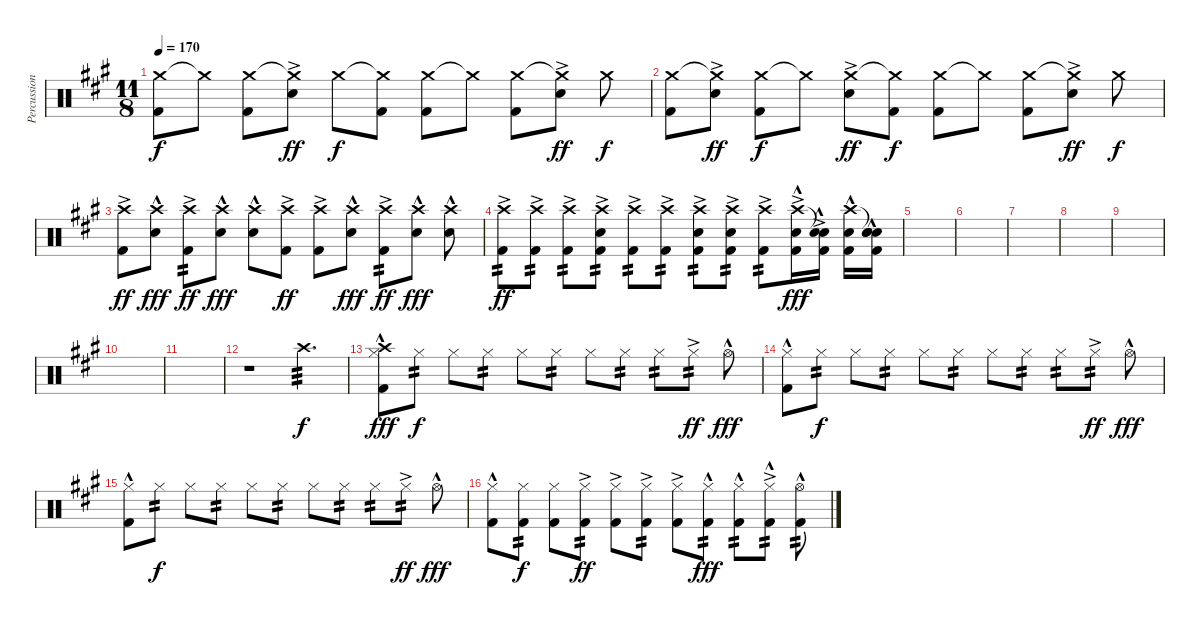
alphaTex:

\track ("Percussion" "Percussion") {instrument percussion}
\staff {score}
\articulation defaults
\ts (11 8)
\tempo 170
\clef neutral
\ks f#minor
("Crash medium (hit)" "Kick (hit) 2").8{dy f} "Crash medium (hit)"{t}.8 ("Crash medium (hit)" "Kick (hit) 2").8 ("Crash medium (hit)"{t} "Electric Snare (hit)"{ac}).8{dy ff} "Crash medium (hit)".8{dy f} ("Crash medium (hit)"{t} "Kick (hit) 2").8 ("Crash medium (hit)" "Kick (hit) 2").8 "Crash medium (hit)"{t}.8 ("Crash medium (hit)" "Kick (hit) 2").8 ("Crash medium (hit)"{t} "Electric Snare (hit)"{ac}).8{dy ff} "Crash medium (hit)".8{dy f} |
("Crash medium (hit)" "Kick (hit) 2").8 ("Crash medium (hit)"{t} "Electric Snare (hit)"{ac}).8{dy ff} ("Crash medium (hit)" "Kick (hit) 2").8{dy f} "Crash medium (hit)"{t}.8 ("Crash medium (hit)" "Electric Snare (hit)"{ac}).8{dy ff} ("Crash medium (hit)"{t} "Kick (hit) 2").8{dy f} ("Crash medium (hit)" "Kick (hit) 2").8 "Crash medium (hit)"{t}.8 ("Crash medium (hit)" "Kick (hit) 2").8 ("Crash medium (hit)"{t} "Electric Snare (hit)"{ac}).8{dy ff} "Crash medium (hit)".8{dy f} |
("Crash high (hit)" "Kick (hit) 2"{ac}).8{dy ff} ("Crash high (hit)" "Electric Snare (hit)"{hac}).8{dy fff} ("Crash high (hit)" "Kick (hit) 2"{ac}).8{tp 2 dy ff} ("Crash high (hit)" "Electric Snare (hit)"{hac}).8{dy fff} ("Crash high (hit)" "Electric Snare (hit)"{hac}).8 ("Crash high (hit)" "Kick (hit) 2"{ac}).8{dy ff} ("Crash high (hit)" "Kick (hit) 2"{ac}).8 ("Crash high (hit)" "Electric Snare (hit)"{hac}).8{dy fff} ("Crash high (hit)" "Kick (hit) 2"{ac}).8{tp 2 dy ff} ("Crash high (hit)" "Electric Snare (hit)"{hac}).8{dy fff} ("Crash high (hit)" "Electric Snare (hit)"{hac}).8 |
("Crash high (hit)" "Kick (hit) 2"{ac}).8{tp 2 dy ff} ("Crash high (hit)" "Kick (hit) 2"{ac}).8{tp 2} ("Crash high (hit)" "Kick (hit) 2"{ac}).8{tp 2} ("Crash high (hit)" "Electric Snare (hit)"{ac} "Kick (hit) 2"{ac}).8{tp 2} ("Crash high (hit)" "Kick (hit) 2"{ac}).8{tp 2} ("Crash high (hit)" "Kick (hit) 2"{ac}).8{tp 2} ("Crash high (hit)" "Electric Snare (hit)"{ac} "Kick (hit) 2"{ac}).8{tp 2} ("Crash high (hit)" "Electric Snare (hit)"{ac} "Kick (hit) 2"{ac}).8{tp 2} ("Crash high (hit)" "Kick (hit) 2"{ac}).8{tp 2} ("Crash high (hit)" "Electric Snare (hit)"{ac} "Kick (hit) 2"{hac}).16{dy fff} ("Snare (hit)"{t} "Electric Snare (hit)"{ac} "Kick (hit) 2"{hac}).16 ("Crash high (hit)" "Electric Snare (hit)"{hac} "Kick (hit) 2"{hac}).16 ("Snare (hit)"{t} "Snare (hit) 2"{hac} "Electric Snare (hit)"{hac} "Kick (hit) 2"{hac}).16 |
|
|
|
|
|
|
|
r.1{volume 3} "Crash high (hit)".4{d tp 3 dy f volume 13} |
("Crash high (hit)" "Hi-Hat (closed)" "Kick (hit) 2"{hac}).8{dy fff} "Hi-Hat (closed)".8{tp 2 dy f} "Hi-Hat (closed)".8 "Hi-Hat (closed)".8{tp 2} "Hi-Hat (closed)".8 "Hi-Hat (closed)".8{tp 2} "Hi-Hat (closed)".8 "Hi-Hat (closed)".8{tp 2} "Hi-Hat (closed)".8{tp 2} "Hi-Hat (closed)"{ac}.8{tp 2 dy ff} "Hi-Hat (open)"{hac}.8{dy fff} |
("Hi-Hat (closed)" "Kick (hit) 2"{hac}).8 "Hi-Hat (closed)".8{tp 2 dy f} "Hi-Hat (closed)".8 "Hi-Hat (closed)".8{tp 2} "Hi-Hat (closed)".8 "Hi-Hat (closed)".8{tp 2} "Hi-Hat (closed)".8 "Hi-Hat (closed)".8{tp 2} "Hi-Hat (closed)".8{tp 2} "Hi-Hat (closed)"{ac}.8{tp 2 dy ff} "Hi-Hat (open)"{hac}.8{dy fff} |
("Hi-Hat (closed)" "Kick (hit) 2"{hac}).8 "Hi-Hat (closed)".8{tp 2 dy f} "Hi-Hat (closed)".8 "Hi-Hat (closed)".8{tp 2} "Hi-Hat (closed)".8 "Hi-Hat (closed)".8{tp 2} "Hi-Hat (closed)".8 "Hi-Hat (closed)".8{tp 2} "Hi-Hat (closed)".8{tp 2} "Hi-Hat (closed)"{ac}.8{tp 2 dy ff} "Hi-Hat (open)"{hac}.8{dy fff} |
("Hi-Hat (closed)" "Kick (hit) 2"{hac}).8 ("Hi-Hat (closed)" "Kick (hit) 2").8{tp 2 dy f} ("Hi-Hat (closed)" "Kick (hit) 2").8 ("Hi-Hat (closed)" "Kick (hit) 2"{ac}).8{tp 2 dy ff} ("Hi-Hat (closed)" "Kick (hit) 2"{ac}).8 ("Hi-Hat (closed)" "Kick (hit) 2"{ac}).8{tp 2} ("Hi-Hat (closed)" "Kick (hit) 2"{ac}).8 ("Hi-Hat (closed)" "Kick (hit) 2"{hac}).8{tp 2 dy fff} ("Hi-Hat (closed)" "Kick (hit) 2"{hac}).8{tp 2} ("Hi-Hat (closed)"{ac} "Kick (hit) 2"{hac}).8{tp 2} ("Hi-Hat (open)"{hac} "Kick (hit) 2"{hac}).8{tp 2}
